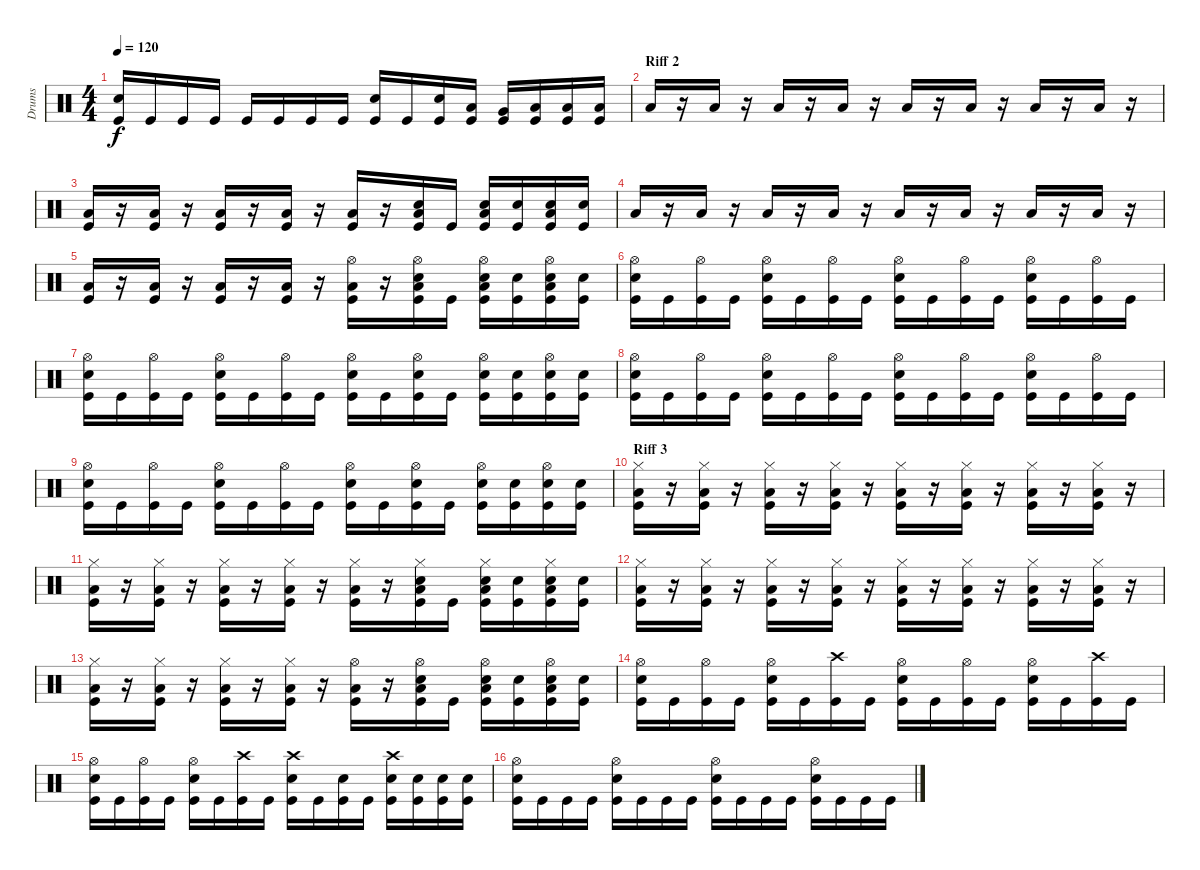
\track ("Drums" "Drums") {instrument percussion}
\staff {score}
\articulation defaults
\ts (4 4)
\tempo 120
\clef neutral
\ks c
("Snare (hit) 2" "Kick (hit)").16{dy f} "Kick (hit)".16 "Kick (hit)".16 "Kick (hit)".16 "Kick (hit)".16 "Kick (hit)".16 "Kick (hit)".16 "Kick (hit)".16 ("Snare (hit) 2" "Kick (hit)").16 "Kick (hit)".16 ("Snare (hit) 2" "Kick (hit)").16 ("Low Tom (hit)" "Kick (hit)").16 ("Very Low Tom (hit)" "Kick (hit)").16 ("Low Floor Tom (hit)" "Kick (hit)").16 ("Low Floor Tom (hit)" "Kick (hit)").16 ("Low Floor Tom (hit)" "Kick (hit)").16 |
\section ("" "Riff 2")
"Low Floor Tom (hit)".16 r.16 "Low Floor Tom (hit)".16 r.16 "Low Floor Tom (hit)".16 r.16 "Low Floor Tom (hit)".16 r.16 "Low Floor Tom (hit)".16 r.16 "Low Floor Tom (hit)".16 r.16 "Low Floor Tom (hit)".16 r.16 "Low Floor Tom (hit)".16 r.16 |
("Low Floor Tom (hit)" "Kick (hit)").16 r.16 ("Low Floor Tom (hit)" "Kick (hit)").16 r.16 ("Low Floor Tom (hit)" "Kick (hit)").16 r.16 ("Low Floor Tom (hit)" "Kick (hit)").16 r.16 ("Low Floor Tom (hit)" "Kick (hit)").16 r.16 ("Snare (hit) 2" "Low Floor Tom (hit)" "Kick (hit)").16 "Kick (hit)".16 ("Snare (hit) 2" "Low Floor Tom (hit)" "Kick (hit)").16 ("Snare (hit) 2" "Kick (hit)").16 ("Snare (hit) 2" "Low Floor Tom (hit)" "Kick (hit)").16 ("Snare (hit) 2" "Kick (hit)").16 |
"Low Floor Tom (hit)".16 r.16 "Low Floor Tom (hit)".16 r.16 "Low Floor Tom (hit)".16 r.16 "Low Floor Tom (hit)".16 r.16 "Low Floor Tom (hit)".16 r.16 "Low Floor Tom (hit)".16 r.16 "Low Floor Tom (hit)".16 r.16 "Low Floor Tom (hit)".16 r.16 |
("Low Floor Tom (hit)" "Kick (hit)").16 r.16 ("Low Floor Tom (hit)" "Kick (hit)").16 r.16 ("Low Floor Tom (hit)" "Kick (hit)").16 r.16 ("Low Floor Tom (hit)" "Kick (hit)").16 r.16 ("Hi-Hat (open)" "Low Floor Tom (hit)" "Kick (hit)").16 r.16 ("Hi-Hat (open)" "Snare (hit) 2" "Low Floor Tom (hit)" "Kick (hit)").16 "Kick (hit)".16 ("Hi-Hat (open)" "Snare (hit) 2" "Low Floor Tom (hit)" "Kick (hit)").16 ("Snare (hit) 2" "Kick (hit)").16 ("Hi-Hat (open)" "Snare (hit) 2" "Low Floor Tom (hit)" "Kick (hit)").16 ("Snare (hit) 2" "Kick (hit)").16 |
("Hi-Hat (open)" "Snare (hit) 2" "Kick (hit)").16 "Kick (hit)".16 ("Hi-Hat (open)" "Kick (hit)").16 "Kick (hit)".16 ("Hi-Hat (open)" "Snare (hit) 2" "Kick (hit)").16 "Kick (hit)".16 ("Hi-Hat (open)" "Kick (hit)").16 "Kick (hit)".16 ("Hi-Hat (open)" "Snare (hit) 2" "Kick (hit)").16 "Kick (hit)".16 ("Hi-Hat (open)" "Kick (hit)").16 "Kick (hit)".16 ("Hi-Hat (open)" "Snare (hit) 2" "Kick (hit)").16 "Kick (hit)".16 ("Hi-Hat (open)" "Kick (hit)").16 "Kick (hit)".16 |
("Hi-Hat (open)" "Snare (hit) 2" "Kick (hit)").16 "Kick (hit)".16 ("Hi-Hat (open)" "Kick (hit)").16 "Kick (hit)".16 ("Hi-Hat (open)" "Snare (hit) 2" "Kick (hit)").16 "Kick (hit)".16 ("Hi-Hat (open)" "Kick (hit)").16 "Kick (hit)".16 ("Hi-Hat (open)" "Snare (hit) 2" "Kick (hit)").16 "Kick (hit)".16 ("Hi-Hat (open)" "Snare (hit) 2" "Kick (hit)").16 "Kick (hit)".16 ("Hi-Hat (open)" "Snare (hit) 2" "Kick (hit)").16 ("Snare (hit) 2" "Kick (hit)").16 ("Hi-Hat (open)" "Snare (hit) 2" "Kick (hit)").16 ("Snare (hit) 2" "Kick (hit)").16 |
("Hi-Hat (open)" "Snare (hit) 2" "Kick (hit)").16 "Kick (hit)".16 ("Hi-Hat (open)" "Kick (hit)").16 "Kick (hit)".16 ("Hi-Hat (open)" "Snare (hit) 2" "Kick (hit)").16 "Kick (hit)".16 ("Hi-Hat (open)" "Kick (hit)").16 "Kick (hit)".16 ("Hi-Hat (open)" "Snare (hit) 2" "Kick (hit)").16 "Kick (hit)".16 ("Hi-Hat (open)" "Kick (hit)").16 "Kick (hit)".16 ("Hi-Hat (open)" "Snare (hit) 2" "Kick (hit)").16 "Kick (hit)".16 ("Hi-Hat (open)" "Kick (hit)").16 "Kick (hit)".16 |
("Hi-Hat (open)" "Snare (hit) 2" "Kick (hit)").16 "Kick (hit)".16 ("Hi-Hat (open)" "Kick (hit)").16 "Kick (hit)".16 ("Hi-Hat (open)" "Snare (hit) 2" "Kick (hit)").16 "Kick (hit)".16 ("Hi-Hat (open)" "Kick (hit)").16 "Kick (hit)".16 ("Hi-Hat (open)" "Snare (hit) 2" "Kick (hit)").16 "Kick (hit)".16 ("Hi-Hat (open)" "Snare (hit) 2" "Kick (hit)").16 "Kick (hit)".16 ("Hi-Hat (open)" "Snare (hit) 2" "Kick (hit)").16 ("Snare (hit) 2" "Kick (hit)").16 ("Hi-Hat (open)" "Snare (hit) 2" "Kick (hit)").16 ("Snare (hit) 2" "Kick (hit)").16 |
\section ("" "Riff 3")
("Hi-Hat (closed)" "Low Floor Tom (hit)" "Kick (hit)").16 r.16 ("Hi-Hat (closed)" "Low Floor Tom (hit)" "Kick (hit)").16 r.16 ("Hi-Hat (closed)" "Low Floor Tom (hit)" "Kick (hit)").16 r.16 ("Hi-Hat (closed)" "Low Floor Tom (hit)" "Kick (hit)").16 r.16 ("Hi-Hat (closed)" "Low Floor Tom (hit)" "Kick (hit)").16 r.16 ("Hi-Hat (closed)" "Low Floor Tom (hit)" "Kick (hit)").16 r.16 ("Hi-Hat (closed)" "Low Floor Tom (hit)" "Kick (hit)").16 r.16 ("Hi-Hat (closed)" "Low Floor Tom (hit)" "Kick (hit)").16 r.16 |
("Hi-Hat (closed)" "Low Floor Tom (hit)" "Kick (hit)").16 r.16 ("Hi-Hat (closed)" "Low Floor Tom (hit)" "Kick (hit)").16 r.16 ("Hi-Hat (closed)" "Low Floor Tom (hit)" "Kick (hit)").16 r.16 ("Hi-Hat (closed)" "Low Floor Tom (hit)" "Kick (hit)").16 r.16 ("Hi-Hat (closed)" "Low Floor Tom (hit)" "Kick (hit)").16 r.16 ("Hi-Hat (closed)" "Snare (hit) 2" "Low Floor Tom (hit)" "Kick (hit)").16 "Kick (hit)".16 ("Hi-Hat (closed)" "Snare (hit) 2" "Low Floor Tom (hit)" "Kick (hit)").16 ("Snare (hit) 2" "Kick (hit)").16 ("Hi-Hat (closed)" "Snare (hit) 2" "Low Floor Tom (hit)" "Kick (hit)").16 ("Snare (hit) 2" "Kick (hit)").16 |
("Hi-Hat (closed)" "Low Floor Tom (hit)" "Kick (hit)").16 r.16 ("Hi-Hat (closed)" "Low Floor Tom (hit)" "Kick (hit)").16 r.16 ("Hi-Hat (closed)" "Low Floor Tom (hit)" "Kick (hit)").16 r.16 ("Hi-Hat (closed)" "Low Floor Tom (hit)" "Kick (hit)").16 r.16 ("Hi-Hat (closed)" "Low Floor Tom (hit)" "Kick (hit)").16 r.16 ("Hi-Hat (closed)" "Low Floor Tom (hit)" "Kick (hit)").16 r.16 ("Hi-Hat (closed)" "Low Floor Tom (hit)" "Kick (hit)").16 r.16 ("Hi-Hat (closed)" "Low Floor Tom (hit)" "Kick (hit)").16 r.16 |
("Hi-Hat (closed)" "Low Floor Tom (hit)" "Kick (hit)").16 r.16 ("Hi-Hat (closed)" "Low Floor Tom (hit)" "Kick (hit)").16 r.16 ("Hi-Hat (closed)" "Low Floor Tom (hit)" "Kick (hit)").16 r.16 ("Hi-Hat (closed)" "Low Floor Tom (hit)" "Kick (hit)").16 r.16 ("Hi-Hat (open)" "Low Floor Tom (hit)" "Kick (hit)").16 r.16 ("Hi-Hat (open)" "Snare (hit) 2" "Low Floor Tom (hit)" "Kick (hit)").16 "Kick (hit)".16 ("Hi-Hat (open)" "Snare (hit) 2" "Low Floor Tom (hit)" "Kick (hit)").16 ("Snare (hit) 2" "Kick (hit)").16 ("Hi-Hat (open)" "Snare (hit) 2" "Low Floor Tom (hit)" "Kick (hit)").16 ("Snare (hit) 2" "Kick (hit)").16 |
("Hi-Hat (open)" "Snare (hit) 2" "Kick (hit)").16 "Kick (hit)".16 ("Hi-Hat (open)" "Kick (hit)").16 "Kick (hit)".16 ("Hi-Hat (open)" "Snare (hit) 2" "Kick (hit)").16 "Kick (hit)".16 ("Crash high (hit)" "Kick (hit)").16 "Kick (hit)".16 ("Hi-Hat (open)" "Snare (hit) 2" "Kick (hit)").16 "Kick (hit)".16 ("Hi-Hat (open)" "Kick (hit)").16 "Kick (hit)".16 ("Hi-Hat (open)" "Snare (hit) 2" "Kick (hit)").16 "Kick (hit)".16 ("Crash high (hit)" "Kick (hit)").16 "Kick (hit)".16 |
("Hi-Hat (open)" "Snare (hit) 2" "Kick (hit)").16 "Kick (hit)".16 ("Hi-Hat (open)" "Kick (hit)").16 "Kick (hit)".16 ("Hi-Hat (open)" "Snare (hit) 2" "Kick (hit)").16 "Kick (hit)".16 ("Crash high (hit)" "Kick (hit)").16 "Kick (hit)".16 ("Crash high (hit)" "Snare (hit) 2" "Kick (hit)").16 "Kick (hit)".16 ("Snare (hit) 2" "Kick (hit)").16 "Kick (hit)".16 ("Crash high (hit)" "Snare (hit) 2" "Kick (hit)").16 ("Snare (hit) 2" "Kick (hit)").16 ("Snare (hit) 2" "Kick (hit)").16 ("Snare (hit) 2" "Kick (hit)").16 |
("Hi-Hat (open)" "Snare (hit) 2" "Kick (hit)").16 "Kick (hit)".16 "Kick (hit)".16 "Kick (hit)".16 ("Hi-Hat (open)" "Snare (hit) 2" "Kick (hit)").16 "Kick (hit)".16 "Kick (hit)".16 "Kick (hit)".16 ("Hi-Hat (open)" "Snare (hit) 2" "Kick (hit)").16 "Kick (hit)".16 "Kick (hit)".16 "Kick (hit)".16 ("Hi-Hat (open)" "Snare (hit) 2" "Kick (hit)").16 "Kick (hit)".16 "Kick (hit)".16 "Kick (hit)".16
